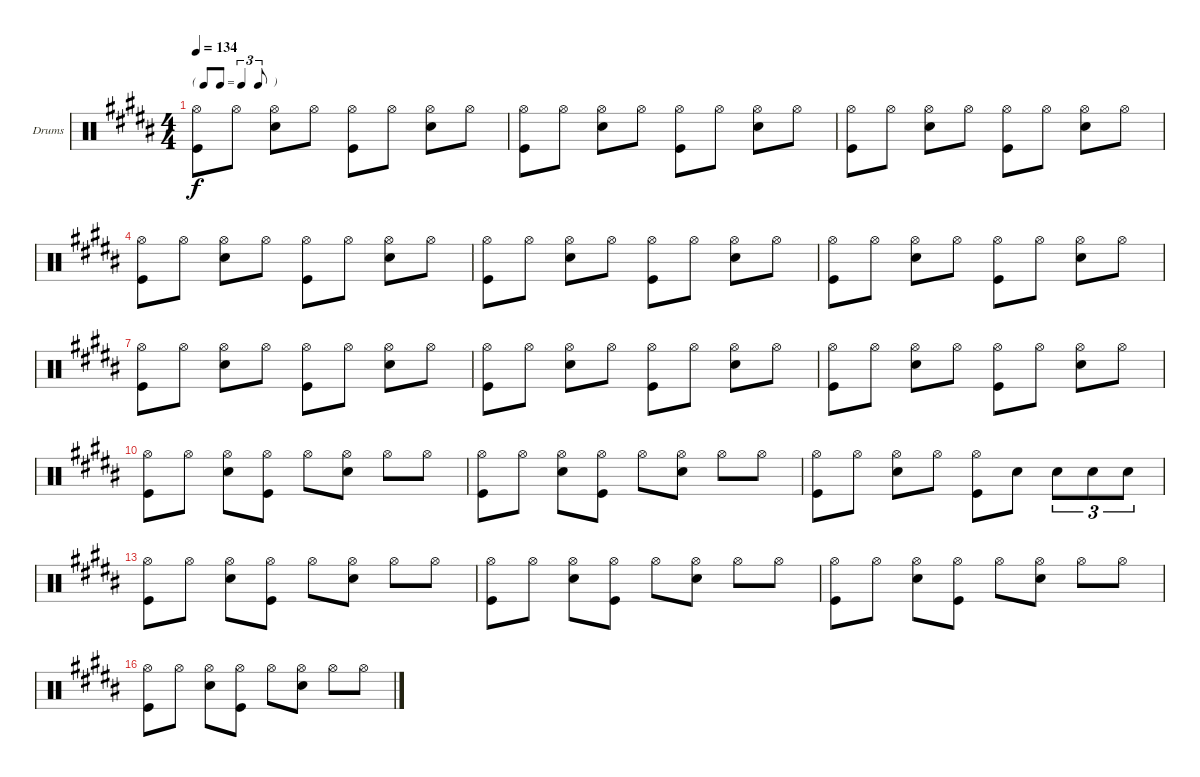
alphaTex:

\bracketExtendMode nobrackets
\firstSystemTrackNameOrientation horizontal
\otherSystemsTrackNameOrientation horizontal
\defaultBarNumberDisplay FirstOfSystem
\track ("Drumkit" "Drums") {instrument percussion}
\staff {score}
\articulation defaults
\ts (4 4)
\tf triplet8th
\tempo 134
\clef neutral
\ks b
("Hi-Hat (open)" "Kick (hit)").8{dy f} "Hi-Hat (open)".8 ("Hi-Hat (open)" "Snare (hit) 2").8 "Hi-Hat (open)".8 ("Hi-Hat (open)" "Kick (hit)").8 "Hi-Hat (open)".8 ("Hi-Hat (open)" "Snare (hit) 2").8 "Hi-Hat (open)".8 |
("Hi-Hat (open)" "Kick (hit)").8 "Hi-Hat (open)".8 ("Hi-Hat (open)" "Snare (hit) 2").8 "Hi-Hat (open)".8 ("Hi-Hat (open)" "Kick (hit)").8 "Hi-Hat (open)".8 ("Hi-Hat (open)" "Snare (hit) 2").8 "Hi-Hat (open)".8 |
("Hi-Hat (open)" "Kick (hit)").8 "Hi-Hat (open)".8 ("Hi-Hat (open)" "Snare (hit) 2").8 "Hi-Hat (open)".8 ("Hi-Hat (open)" "Kick (hit)").8 "Hi-Hat (open)".8 ("Hi-Hat (open)" "Snare (hit) 2").8 "Hi-Hat (open)".8 |
("Hi-Hat (open)" "Kick (hit)").8 "Hi-Hat (open)".8 ("Hi-Hat (open)" "Snare (hit) 2").8 "Hi-Hat (open)".8 ("Hi-Hat (open)" "Kick (hit)").8 "Hi-Hat (open)".8 ("Hi-Hat (open)" "Snare (hit) 2").8 "Hi-Hat (open)".8 |
("Hi-Hat (open)" "Kick (hit)").8 "Hi-Hat (open)".8 ("Hi-Hat (open)" "Snare (hit) 2").8 "Hi-Hat (open)".8 ("Hi-Hat (open)" "Kick (hit)").8 "Hi-Hat (open)".8 ("Hi-Hat (open)" "Snare (hit) 2").8 "Hi-Hat (open)".8 |
("Hi-Hat (open)" "Kick (hit)").8 "Hi-Hat (open)".8 ("Hi-Hat (open)" "Snare (hit) 2").8 "Hi-Hat (open)".8 ("Hi-Hat (open)" "Kick (hit)").8 "Hi-Hat (open)".8 ("Hi-Hat (open)" "Snare (hit) 2").8 "Hi-Hat (open)".8 |
("Hi-Hat (open)" "Kick (hit)").8 "Hi-Hat (open)".8 ("Hi-Hat (open)" "Snare (hit) 2").8 "Hi-Hat (open)".8 ("Hi-Hat (open)" "Kick (hit)").8 "Hi-Hat (open)".8 ("Hi-Hat (open)" "Snare (hit) 2").8 "Hi-Hat (open)".8 |
("Hi-Hat (open)" "Kick (hit)").8 "Hi-Hat (open)".8 ("Hi-Hat (open)" "Snare (hit) 2").8 "Hi-Hat (open)".8 ("Hi-Hat (open)" "Kick (hit)").8 "Hi-Hat (open)".8 ("Hi-Hat (open)" "Snare (hit) 2").8 "Hi-Hat (open)".8 |
("Hi-Hat (open)" "Kick (hit)").8 "Hi-Hat (open)".8 ("Hi-Hat (open)" "Snare (hit) 2").8 "Hi-Hat (open)".8 ("Hi-Hat (open)" "Kick (hit)").8 "Hi-Hat (open)".8 ("Hi-Hat (open)" "Snare (hit) 2").8 "Hi-Hat (open)".8 |
("Hi-Hat (open)" "Kick (hit)").8 "Hi-Hat (open)".8 ("Hi-Hat (open)" "Snare (hit) 2").8 ("Hi-Hat (open)" "Kick (hit)").8 "Hi-Hat (open)".8 ("Hi-Hat (open)" "Snare (hit) 2").8 "Hi-Hat (open)".8 "Hi-Hat (open)".8 |
("Hi-Hat (open)" "Kick (hit)").8 "Hi-Hat (open)".8 ("Hi-Hat (open)" "Snare (hit) 2").8 ("Hi-Hat (open)" "Kick (hit)").8 "Hi-Hat (open)".8 ("Hi-Hat (open)" "Snare (hit) 2").8 "Hi-Hat (open)".8 "Hi-Hat (open)".8 |
("Hi-Hat (open)" "Kick (hit)").8 "Hi-Hat (open)".8 ("Hi-Hat (open)" "Snare (hit) 2").8 "Hi-Hat (open)".8 ("Hi-Hat (open)" "Kick (hit)").8 "Snare (hit) 2".8 "Snare (hit) 2".8{tu (3 2)} "Snare (hit) 2".8{tu (3 2)} "Snare (hit) 2".8{tu (3 2)} |
("Hi-Hat (open)" "Kick (hit)").8 "Hi-Hat (open)".8 ("Hi-Hat (open)" "Snare (hit) 2").8 ("Hi-Hat (open)" "Kick (hit)").8 "Hi-Hat (open)".8 ("Hi-Hat (open)" "Snare (hit) 2").8 "Hi-Hat (open)".8 "Hi-Hat (open)".8 |
("Hi-Hat (open)" "Kick (hit)").8 "Hi-Hat (open)".8 ("Hi-Hat (open)" "Snare (hit) 2").8 ("Hi-Hat (open)" "Kick (hit)").8 "Hi-Hat (open)".8 ("Hi-Hat (open)" "Snare (hit) 2").8 "Hi-Hat (open)".8 "Hi-Hat (open)".8 |
("Hi-Hat (open)" "Kick (hit)").8 "Hi-Hat (open)".8 ("Hi-Hat (open)" "Snare (hit) 2").8 ("Hi-Hat (open)" "Kick (hit)").8 "Hi-Hat (open)".8 ("Hi-Hat (open)" "Snare (hit) 2").8 "Hi-Hat (open)".8 "Hi-Hat (open)".8 |
("Hi-Hat (open)" "Kick (hit)").8 "Hi-Hat (open)".8 ("Hi-Hat (open)" "Snare (hit) 2").8 ("Hi-Hat (open)" "Kick (hit)").8 "Hi-Hat (open)".8 ("Hi-Hat (open)" "Snare (hit) 2").8 "Hi-Hat (open)".8 "Hi-Hat (open)".8
